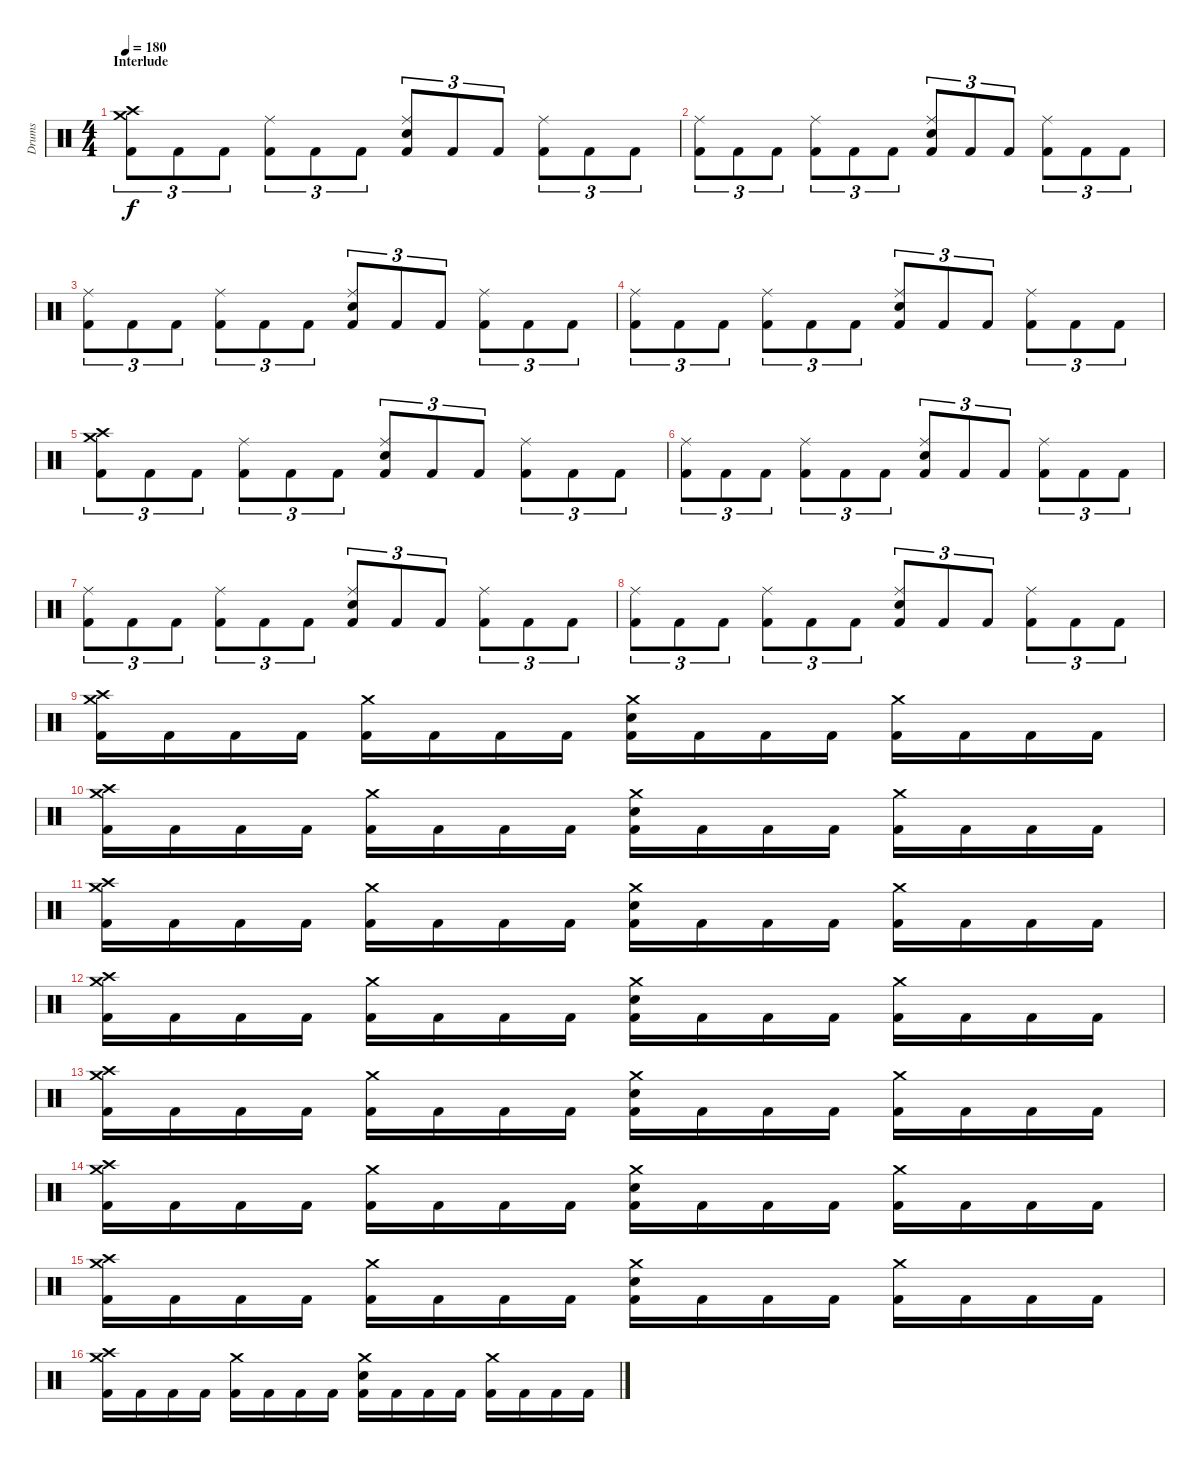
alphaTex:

\track ("Drums" "Drums") {instrument percussion}
\staff {score}
\articulation defaults
\ts (4 4)
\section ("" "Interlude")
\tempo 180
\clef neutral
\ks c
("Crash medium (hit)" "Crash high (hit)" "Kick (hit) 2").8{tu (3 2) dy f} "Kick (hit) 2".8{tu (3 2)} "Kick (hit) 2".8{tu (3 2)} ("Ride (middle)" "Kick (hit) 2").8{tu (3 2)} "Kick (hit) 2".8{tu (3 2)} "Kick (hit) 2".8{tu (3 2)} ("Ride (middle)" "Snare (hit) 2" "Kick (hit) 2").8{tu (3 2)} "Kick (hit) 2".8{tu (3 2)} "Kick (hit) 2".8{tu (3 2)} ("Ride (middle)" "Kick (hit) 2").8{tu (3 2)} "Kick (hit) 2".8{tu (3 2)} "Kick (hit) 2".8{tu (3 2)} |
("Ride (middle)" "Kick (hit) 2").8{tu (3 2)} "Kick (hit) 2".8{tu (3 2)} "Kick (hit) 2".8{tu (3 2)} ("Ride (middle)" "Kick (hit) 2").8{tu (3 2)} "Kick (hit) 2".8{tu (3 2)} "Kick (hit) 2".8{tu (3 2)} ("Ride (middle)" "Snare (hit) 2" "Kick (hit) 2").8{tu (3 2)} "Kick (hit) 2".8{tu (3 2)} "Kick (hit) 2".8{tu (3 2)} ("Ride (middle)" "Kick (hit) 2").8{tu (3 2)} "Kick (hit) 2".8{tu (3 2)} "Kick (hit) 2".8{tu (3 2)} |
("Ride (middle)" "Kick (hit) 2").8{tu (3 2)} "Kick (hit) 2".8{tu (3 2)} "Kick (hit) 2".8{tu (3 2)} ("Ride (middle)" "Kick (hit) 2").8{tu (3 2)} "Kick (hit) 2".8{tu (3 2)} "Kick (hit) 2".8{tu (3 2)} ("Ride (middle)" "Snare (hit) 2" "Kick (hit) 2").8{tu (3 2)} "Kick (hit) 2".8{tu (3 2)} "Kick (hit) 2".8{tu (3 2)} ("Ride (middle)" "Kick (hit) 2").8{tu (3 2)} "Kick (hit) 2".8{tu (3 2)} "Kick (hit) 2".8{tu (3 2)} |
("Ride (middle)" "Kick (hit) 2").8{tu (3 2)} "Kick (hit) 2".8{tu (3 2)} "Kick (hit) 2".8{tu (3 2)} ("Ride (middle)" "Kick (hit) 2").8{tu (3 2)} "Kick (hit) 2".8{tu (3 2)} "Kick (hit) 2".8{tu (3 2)} ("Ride (middle)" "Snare (hit) 2" "Kick (hit) 2").8{tu (3 2)} "Kick (hit) 2".8{tu (3 2)} "Kick (hit) 2".8{tu (3 2)} ("Ride (middle)" "Kick (hit) 2").8{tu (3 2)} "Kick (hit) 2".8{tu (3 2)} "Kick (hit) 2".8{tu (3 2)} |
("Crash medium (hit)" "Crash high (hit)" "Kick (hit) 2").8{tu (3 2)} "Kick (hit) 2".8{tu (3 2)} "Kick (hit) 2".8{tu (3 2)} ("Ride (middle)" "Kick (hit) 2").8{tu (3 2)} "Kick (hit) 2".8{tu (3 2)} "Kick (hit) 2".8{tu (3 2)} ("Ride (middle)" "Snare (hit) 2" "Kick (hit) 2").8{tu (3 2)} "Kick (hit) 2".8{tu (3 2)} "Kick (hit) 2".8{tu (3 2)} ("Ride (middle)" "Kick (hit) 2").8{tu (3 2)} "Kick (hit) 2".8{tu (3 2)} "Kick (hit) 2".8{tu (3 2)} |
("Ride (middle)" "Kick (hit) 2").8{tu (3 2)} "Kick (hit) 2".8{tu (3 2)} "Kick (hit) 2".8{tu (3 2)} ("Ride (middle)" "Kick (hit) 2").8{tu (3 2)} "Kick (hit) 2".8{tu (3 2)} "Kick (hit) 2".8{tu (3 2)} ("Ride (middle)" "Snare (hit) 2" "Kick (hit) 2").8{tu (3 2)} "Kick (hit) 2".8{tu (3 2)} "Kick (hit) 2".8{tu (3 2)} ("Ride (middle)" "Kick (hit) 2").8{tu (3 2)} "Kick (hit) 2".8{tu (3 2)} "Kick (hit) 2".8{tu (3 2)} |
("Ride (middle)" "Kick (hit) 2").8{tu (3 2)} "Kick (hit) 2".8{tu (3 2)} "Kick (hit) 2".8{tu (3 2)} ("Ride (middle)" "Kick (hit) 2").8{tu (3 2)} "Kick (hit) 2".8{tu (3 2)} "Kick (hit) 2".8{tu (3 2)} ("Ride (middle)" "Snare (hit) 2" "Kick (hit) 2").8{tu (3 2)} "Kick (hit) 2".8{tu (3 2)} "Kick (hit) 2".8{tu (3 2)} ("Ride (middle)" "Kick (hit) 2").8{tu (3 2)} "Kick (hit) 2".8{tu (3 2)} "Kick (hit) 2".8{tu (3 2)} |
("Ride (middle)" "Kick (hit) 2").8{tu (3 2)} "Kick (hit) 2".8{tu (3 2)} "Kick (hit) 2".8{tu (3 2)} ("Ride (middle)" "Kick (hit) 2").8{tu (3 2)} "Kick (hit) 2".8{tu (3 2)} "Kick (hit) 2".8{tu (3 2)} ("Ride (middle)" "Snare (hit) 2" "Kick (hit) 2").8{tu (3 2)} "Kick (hit) 2".8{tu (3 2)} "Kick (hit) 2".8{tu (3 2)} ("Ride (middle)" "Kick (hit) 2").8{tu (3 2)} "Kick (hit) 2".8{tu (3 2)} "Kick (hit) 2".8{tu (3 2)} |
("Crash medium (hit)" "Crash high (hit)" "Kick (hit) 2").16 "Kick (hit) 2".16 "Kick (hit) 2".16 "Kick (hit) 2".16 ("Crash medium (hit)" "Kick (hit) 2").16 "Kick (hit) 2".16 "Kick (hit) 2".16 "Kick (hit) 2".16 ("Crash medium (hit)" "Snare (hit) 2" "Kick (hit) 2").16 "Kick (hit) 2".16 "Kick (hit) 2".16 "Kick (hit) 2".16 ("Crash medium (hit)" "Kick (hit) 2").16 "Kick (hit) 2".16 "Kick (hit) 2".16 "Kick (hit) 2".16 |
("Crash medium (hit)" "Crash high (hit)" "Kick (hit) 2").16 "Kick (hit) 2".16 "Kick (hit) 2".16 "Kick (hit) 2".16 ("Crash medium (hit)" "Kick (hit) 2").16 "Kick (hit) 2".16 "Kick (hit) 2".16 "Kick (hit) 2".16 ("Crash medium (hit)" "Snare (hit) 2" "Kick (hit) 2").16 "Kick (hit) 2".16 "Kick (hit) 2".16 "Kick (hit) 2".16 ("Crash medium (hit)" "Kick (hit) 2").16 "Kick (hit) 2".16 "Kick (hit) 2".16 "Kick (hit) 2".16 |
("Crash medium (hit)" "Crash high (hit)" "Kick (hit) 2").16 "Kick (hit) 2".16 "Kick (hit) 2".16 "Kick (hit) 2".16 ("Crash medium (hit)" "Kick (hit) 2").16 "Kick (hit) 2".16 "Kick (hit) 2".16 "Kick (hit) 2".16 ("Crash medium (hit)" "Snare (hit) 2" "Kick (hit) 2").16 "Kick (hit) 2".16 "Kick (hit) 2".16 "Kick (hit) 2".16 ("Crash medium (hit)" "Kick (hit) 2").16 "Kick (hit) 2".16 "Kick (hit) 2".16 "Kick (hit) 2".16 |
("Crash medium (hit)" "Crash high (hit)" "Kick (hit) 2").16 "Kick (hit) 2".16 "Kick (hit) 2".16 "Kick (hit) 2".16 ("Crash medium (hit)" "Kick (hit) 2").16 "Kick (hit) 2".16 "Kick (hit) 2".16 "Kick (hit) 2".16 ("Crash medium (hit)" "Snare (hit) 2" "Kick (hit) 2").16 "Kick (hit) 2".16 "Kick (hit) 2".16 "Kick (hit) 2".16 ("Crash medium (hit)" "Kick (hit) 2").16 "Kick (hit) 2".16 "Kick (hit) 2".16 "Kick (hit) 2".16 |
("Crash medium (hit)" "Crash high (hit)" "Kick (hit) 2").16 "Kick (hit) 2".16 "Kick (hit) 2".16 "Kick (hit) 2".16 ("Crash medium (hit)" "Kick (hit) 2").16 "Kick (hit) 2".16 "Kick (hit) 2".16 "Kick (hit) 2".16 ("Crash medium (hit)" "Snare (hit) 2" "Kick (hit) 2").16 "Kick (hit) 2".16 "Kick (hit) 2".16 "Kick (hit) 2".16 ("Crash medium (hit)" "Kick (hit) 2").16 "Kick (hit) 2".16 "Kick (hit) 2".16 "Kick (hit) 2".16 |
("Crash medium (hit)" "Crash high (hit)" "Kick (hit) 2").16 "Kick (hit) 2".16 "Kick (hit) 2".16 "Kick (hit) 2".16 ("Crash medium (hit)" "Kick (hit) 2").16 "Kick (hit) 2".16 "Kick (hit) 2".16 "Kick (hit) 2".16 ("Crash medium (hit)" "Snare (hit) 2" "Kick (hit) 2").16 "Kick (hit) 2".16 "Kick (hit) 2".16 "Kick (hit) 2".16 ("Crash medium (hit)" "Kick (hit) 2").16 "Kick (hit) 2".16 "Kick (hit) 2".16 "Kick (hit) 2".16 |
("Crash medium (hit)" "Crash high (hit)" "Kick (hit) 2").16 "Kick (hit) 2".16 "Kick (hit) 2".16 "Kick (hit) 2".16 ("Crash medium (hit)" "Kick (hit) 2").16 "Kick (hit) 2".16 "Kick (hit) 2".16 "Kick (hit) 2".16 ("Crash medium (hit)" "Snare (hit) 2" "Kick (hit) 2").16 "Kick (hit) 2".16 "Kick (hit) 2".16 "Kick (hit) 2".16 ("Crash medium (hit)" "Kick (hit) 2").16 "Kick (hit) 2".16 "Kick (hit) 2".16 "Kick (hit) 2".16 |
("Crash medium (hit)" "Crash high (hit)" "Kick (hit) 2").16 "Kick (hit) 2".16 "Kick (hit) 2".16 "Kick (hit) 2".16 ("Crash medium (hit)" "Kick (hit) 2").16 "Kick (hit) 2".16 "Kick (hit) 2".16 "Kick (hit) 2".16 ("Crash medium (hit)" "Snare (hit) 2" "Kick (hit) 2").16 "Kick (hit) 2".16 "Kick (hit) 2".16 "Kick (hit) 2".16 ("Crash medium (hit)" "Kick (hit) 2").16 "Kick (hit) 2".16 "Kick (hit) 2".16 "Kick (hit) 2".16
